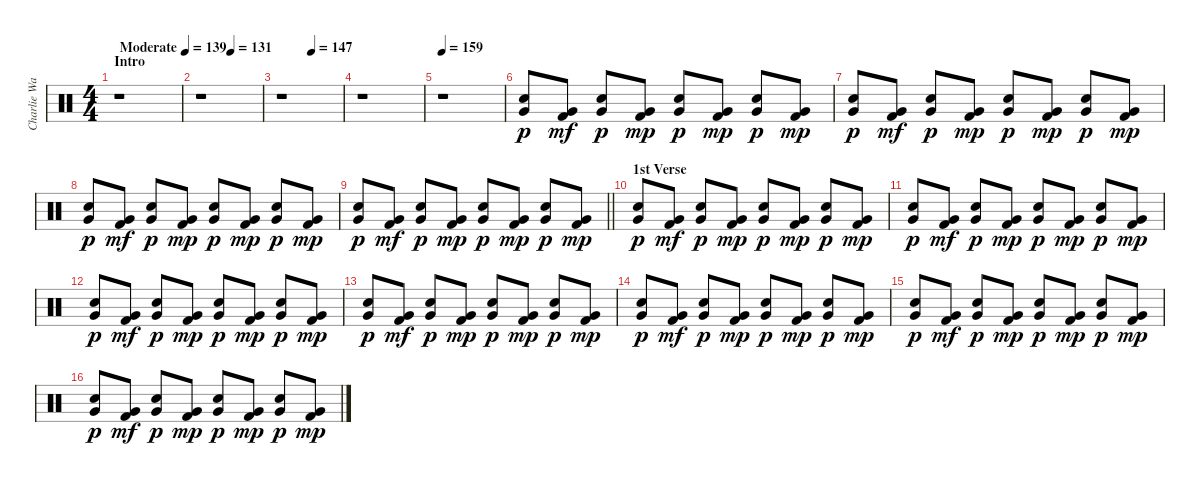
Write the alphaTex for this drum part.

\track ("Charlie Watts (Drums)" "Charlie Wa") {instrument percussion}
\staff {score}
\articulation defaults
\ts (4 4)
\section ("" "Intro")
\tempo (139 "Moderate")
\clef neutral
\ks c
r.1{dy p} |
\tempo (131 0.5)
r.1 |
\tempo (147 0.5)
r.1 |
r.1 |
\tempo 159
r.1 |
("Very Low Tom (hit)" "Electric Snare (hit)").8 ("Very Low Tom (hit)" "Kick (hit) 2").8{dy mf} ("Very Low Tom (hit)" "Electric Snare (hit)").8{dy p} ("Very Low Tom (hit)" "Kick (hit) 2").8{dy mp} ("Very Low Tom (hit)" "Electric Snare (hit)").8{dy p} ("Very Low Tom (hit)" "Kick (hit) 2").8{dy mp} ("Very Low Tom (hit)" "Electric Snare (hit)").8{dy p} ("Very Low Tom (hit)" "Kick (hit) 2").8{dy mp} |
("Very Low Tom (hit)" "Electric Snare (hit)").8{dy p} ("Very Low Tom (hit)" "Kick (hit) 2").8{dy mf} ("Very Low Tom (hit)" "Electric Snare (hit)").8{dy p} ("Very Low Tom (hit)" "Kick (hit) 2").8{dy mp} ("Very Low Tom (hit)" "Electric Snare (hit)").8{dy p} ("Very Low Tom (hit)" "Kick (hit) 2").8{dy mp} ("Very Low Tom (hit)" "Electric Snare (hit)").8{dy p} ("Very Low Tom (hit)" "Kick (hit) 2").8{dy mp} |
("Very Low Tom (hit)" "Electric Snare (hit)").8{dy p} ("Very Low Tom (hit)" "Kick (hit) 2").8{dy mf} ("Very Low Tom (hit)" "Electric Snare (hit)").8{dy p} ("Very Low Tom (hit)" "Kick (hit) 2").8{dy mp} ("Very Low Tom (hit)" "Electric Snare (hit)").8{dy p} ("Very Low Tom (hit)" "Kick (hit) 2").8{dy mp} ("Very Low Tom (hit)" "Electric Snare (hit)").8{dy p} ("Very Low Tom (hit)" "Kick (hit) 2").8{dy mp} |
\barLineRight lightlight
("Very Low Tom (hit)" "Electric Snare (hit)").8{dy p} ("Very Low Tom (hit)" "Kick (hit) 2").8{dy mf} ("Very Low Tom (hit)" "Electric Snare (hit)").8{dy p} ("Very Low Tom (hit)" "Kick (hit) 2").8{dy mp} ("Very Low Tom (hit)" "Electric Snare (hit)").8{dy p} ("Very Low Tom (hit)" "Kick (hit) 2").8{dy mp} ("Very Low Tom (hit)" "Electric Snare (hit)").8{dy p} ("Very Low Tom (hit)" "Kick (hit) 2").8{dy mp} |
\section ("" "1st Verse")
("Very Low Tom (hit)" "Electric Snare (hit)").8{dy p} ("Very Low Tom (hit)" "Kick (hit) 2").8{dy mf} ("Very Low Tom (hit)" "Electric Snare (hit)").8{dy p} ("Very Low Tom (hit)" "Kick (hit) 2").8{dy mp} ("Very Low Tom (hit)" "Electric Snare (hit)").8{dy p} ("Very Low Tom (hit)" "Kick (hit) 2").8{dy mp} ("Very Low Tom (hit)" "Electric Snare (hit)").8{dy p} ("Very Low Tom (hit)" "Kick (hit) 2").8{dy mp} |
("Very Low Tom (hit)" "Electric Snare (hit)").8{dy p} ("Very Low Tom (hit)" "Kick (hit) 2").8{dy mf} ("Very Low Tom (hit)" "Electric Snare (hit)").8{dy p} ("Very Low Tom (hit)" "Kick (hit) 2").8{dy mp} ("Very Low Tom (hit)" "Electric Snare (hit)").8{dy p} ("Very Low Tom (hit)" "Kick (hit) 2").8{dy mp} ("Very Low Tom (hit)" "Electric Snare (hit)").8{dy p} ("Very Low Tom (hit)" "Kick (hit) 2").8{dy mp} |
("Very Low Tom (hit)" "Electric Snare (hit)").8{dy p} ("Very Low Tom (hit)" "Kick (hit) 2").8{dy mf} ("Very Low Tom (hit)" "Electric Snare (hit)").8{dy p} ("Very Low Tom (hit)" "Kick (hit) 2").8{dy mp} ("Very Low Tom (hit)" "Electric Snare (hit)").8{dy p} ("Very Low Tom (hit)" "Kick (hit) 2").8{dy mp} ("Very Low Tom (hit)" "Electric Snare (hit)").8{dy p} ("Very Low Tom (hit)" "Kick (hit) 2").8{dy mp} |
("Very Low Tom (hit)" "Electric Snare (hit)").8{dy p} ("Very Low Tom (hit)" "Kick (hit) 2").8{dy mf} ("Very Low Tom (hit)" "Electric Snare (hit)").8{dy p} ("Very Low Tom (hit)" "Kick (hit) 2").8{dy mp} ("Very Low Tom (hit)" "Electric Snare (hit)").8{dy p} ("Very Low Tom (hit)" "Kick (hit) 2").8{dy mp} ("Very Low Tom (hit)" "Electric Snare (hit)").8{dy p} ("Very Low Tom (hit)" "Kick (hit) 2").8{dy mp} |
("Very Low Tom (hit)" "Electric Snare (hit)").8{dy p} ("Very Low Tom (hit)" "Kick (hit) 2").8{dy mf} ("Very Low Tom (hit)" "Electric Snare (hit)").8{dy p} ("Very Low Tom (hit)" "Kick (hit) 2").8{dy mp} ("Very Low Tom (hit)" "Electric Snare (hit)").8{dy p} ("Very Low Tom (hit)" "Kick (hit) 2").8{dy mp} ("Very Low Tom (hit)" "Electric Snare (hit)").8{dy p} ("Very Low Tom (hit)" "Kick (hit) 2").8{dy mp} |
("Very Low Tom (hit)" "Electric Snare (hit)").8{dy p} ("Very Low Tom (hit)" "Kick (hit) 2").8{dy mf} ("Very Low Tom (hit)" "Electric Snare (hit)").8{dy p} ("Very Low Tom (hit)" "Kick (hit) 2").8{dy mp} ("Very Low Tom (hit)" "Electric Snare (hit)").8{dy p} ("Very Low Tom (hit)" "Kick (hit) 2").8{dy mp} ("Very Low Tom (hit)" "Electric Snare (hit)").8{dy p} ("Very Low Tom (hit)" "Kick (hit) 2").8{dy mp} |
("Very Low Tom (hit)" "Electric Snare (hit)").8{dy p} ("Very Low Tom (hit)" "Kick (hit) 2").8{dy mf} ("Very Low Tom (hit)" "Electric Snare (hit)").8{dy p} ("Very Low Tom (hit)" "Kick (hit) 2").8{dy mp} ("Very Low Tom (hit)" "Electric Snare (hit)").8{dy p} ("Very Low Tom (hit)" "Kick (hit) 2").8{dy mp} ("Very Low Tom (hit)" "Electric Snare (hit)").8{dy p} ("Very Low Tom (hit)" "Kick (hit) 2").8{dy mp}
